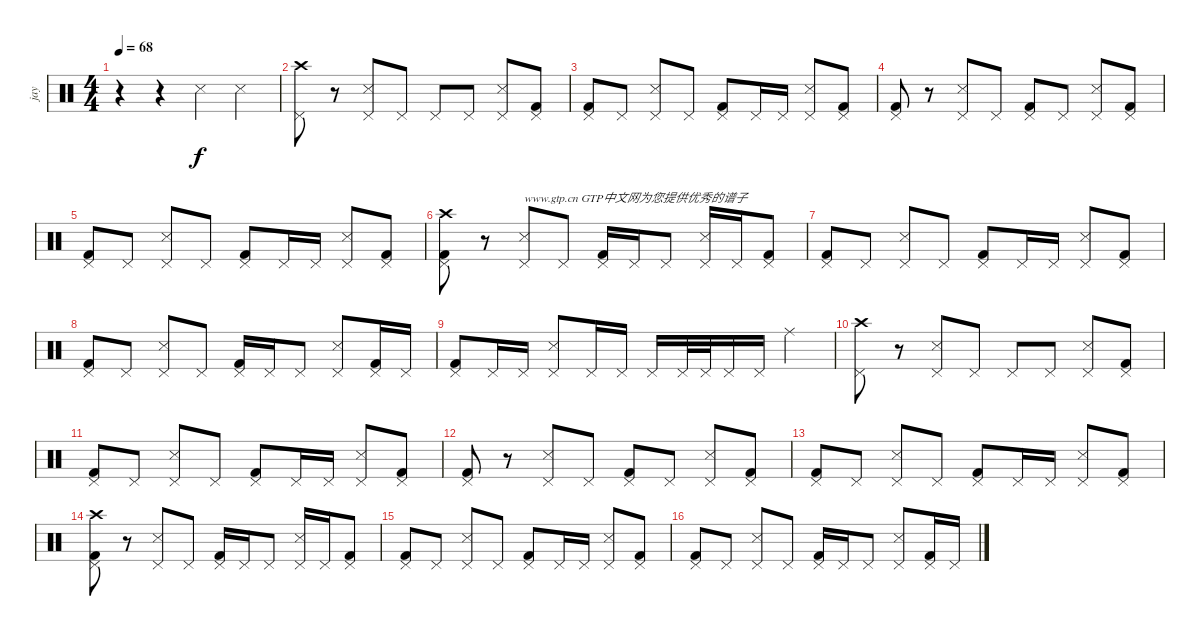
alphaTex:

\track ("jay" "jay") {instrument percussion}
\staff {score}
\articulation defaults
\ts (4 4)
\tempo 68
\clef neutral
\ks c
r.4{dy f} r.4 "Snare (side stick) 3".4 "Snare (side stick) 3".4 |
("Crash high (hit)" "Pedal Hi-Hat (hit)").8 r.8 ("Snare (side stick) 3" "Pedal Hi-Hat (hit)").8 "Pedal Hi-Hat (hit)".8 "Pedal Hi-Hat (hit)".8 "Pedal Hi-Hat (hit)".8 ("Snare (side stick) 3" "Pedal Hi-Hat (hit)").8 ("Kick (hit) 2" "Pedal Hi-Hat (hit)").8 |
("Kick (hit) 2" "Pedal Hi-Hat (hit)").8 "Pedal Hi-Hat (hit)".8 ("Snare (side stick) 3" "Pedal Hi-Hat (hit)").8 "Pedal Hi-Hat (hit)".8 ("Kick (hit) 2" "Pedal Hi-Hat (hit)").8 "Pedal Hi-Hat (hit)".16 "Pedal Hi-Hat (hit)".16 ("Snare (side stick) 3" "Pedal Hi-Hat (hit)").8 ("Kick (hit) 2" "Pedal Hi-Hat (hit)").8 |
("Kick (hit) 2" "Pedal Hi-Hat (hit)").8 r.8 ("Snare (side stick) 3" "Pedal Hi-Hat (hit)").8 "Pedal Hi-Hat (hit)".8 ("Kick (hit) 2" "Pedal Hi-Hat (hit)").8 "Pedal Hi-Hat (hit)".8 ("Snare (side stick) 3" "Pedal Hi-Hat (hit)").8 ("Kick (hit) 2" "Pedal Hi-Hat (hit)").8 |
("Kick (hit) 2" "Pedal Hi-Hat (hit)").8 "Pedal Hi-Hat (hit)".8 ("Snare (side stick) 3" "Pedal Hi-Hat (hit)").8 "Pedal Hi-Hat (hit)".8 ("Kick (hit) 2" "Pedal Hi-Hat (hit)").8 "Pedal Hi-Hat (hit)".16 "Pedal Hi-Hat (hit)".16 ("Snare (side stick) 3" "Pedal Hi-Hat (hit)").8 ("Kick (hit) 2" "Pedal Hi-Hat (hit)").8 |
("Crash high (hit)" "Kick (hit) 2" "Pedal Hi-Hat (hit)").8 r.8 ("Snare (side stick) 3" "Pedal Hi-Hat (hit)").8{txt "www.gtp.cn GTP中文网为您提供优秀的谱子"} "Pedal Hi-Hat (hit)".8 ("Kick (hit) 2" "Pedal Hi-Hat (hit)").16 "Pedal Hi-Hat (hit)".16 "Pedal Hi-Hat (hit)".8 ("Snare (side stick) 3" "Pedal Hi-Hat (hit)").16 "Pedal Hi-Hat (hit)".16 ("Kick (hit) 2" "Pedal Hi-Hat (hit)").8 |
("Kick (hit) 2" "Pedal Hi-Hat (hit)").8 "Pedal Hi-Hat (hit)".8 ("Snare (side stick) 3" "Pedal Hi-Hat (hit)").8 "Pedal Hi-Hat (hit)".8 ("Kick (hit) 2" "Pedal Hi-Hat (hit)").8 "Pedal Hi-Hat (hit)".16 "Pedal Hi-Hat (hit)".16 ("Snare (side stick) 3" "Pedal Hi-Hat (hit)").8 ("Kick (hit) 2" "Pedal Hi-Hat (hit)").8 |
("Kick (hit) 2" "Pedal Hi-Hat (hit)").8 "Pedal Hi-Hat (hit)".8 ("Snare (side stick) 3" "Pedal Hi-Hat (hit)").8 "Pedal Hi-Hat (hit)".8 ("Kick (hit) 2" "Pedal Hi-Hat (hit)").16 "Pedal Hi-Hat (hit)".16 "Pedal Hi-Hat (hit)".8 ("Snare (side stick) 3" "Pedal Hi-Hat (hit)").8 ("Kick (hit) 2" "Pedal Hi-Hat (hit)").16 "Pedal Hi-Hat (hit)".16 |
("Kick (hit) 2" "Pedal Hi-Hat (hit)").8 "Pedal Hi-Hat (hit)".16 "Pedal Hi-Hat (hit)".16 ("Snare (side stick) 3" "Pedal Hi-Hat (hit)").8 "Pedal Hi-Hat (hit)".16 "Pedal Hi-Hat (hit)".16 "Pedal Hi-Hat (hit)".16 "Pedal Hi-Hat (hit)".32 "Pedal Hi-Hat (hit)".32 "Pedal Hi-Hat (hit)".16 "Pedal Hi-Hat (hit)".16 "Ride (middle)".4 |
("Crash high (hit)" "Pedal Hi-Hat (hit)").8 r.8 ("Snare (side stick) 3" "Pedal Hi-Hat (hit)").8 "Pedal Hi-Hat (hit)".8 "Pedal Hi-Hat (hit)".8 "Pedal Hi-Hat (hit)".8 ("Snare (side stick) 3" "Pedal Hi-Hat (hit)").8 ("Kick (hit) 2" "Pedal Hi-Hat (hit)").8 |
("Kick (hit) 2" "Pedal Hi-Hat (hit)").8 "Pedal Hi-Hat (hit)".8 ("Snare (side stick) 3" "Pedal Hi-Hat (hit)").8 "Pedal Hi-Hat (hit)".8 ("Kick (hit) 2" "Pedal Hi-Hat (hit)").8 "Pedal Hi-Hat (hit)".16 "Pedal Hi-Hat (hit)".16 ("Snare (side stick) 3" "Pedal Hi-Hat (hit)").8 ("Kick (hit) 2" "Pedal Hi-Hat (hit)").8 |
("Kick (hit) 2" "Pedal Hi-Hat (hit)").8 r.8 ("Snare (side stick) 3" "Pedal Hi-Hat (hit)").8 "Pedal Hi-Hat (hit)".8 ("Kick (hit) 2" "Pedal Hi-Hat (hit)").8 "Pedal Hi-Hat (hit)".8 ("Snare (side stick) 3" "Pedal Hi-Hat (hit)").8 ("Kick (hit) 2" "Pedal Hi-Hat (hit)").8 |
("Kick (hit) 2" "Pedal Hi-Hat (hit)").8 "Pedal Hi-Hat (hit)".8 ("Snare (side stick) 3" "Pedal Hi-Hat (hit)").8 "Pedal Hi-Hat (hit)".8 ("Kick (hit) 2" "Pedal Hi-Hat (hit)").8 "Pedal Hi-Hat (hit)".16 "Pedal Hi-Hat (hit)".16 ("Snare (side stick) 3" "Pedal Hi-Hat (hit)").8 ("Kick (hit) 2" "Pedal Hi-Hat (hit)").8 |
("Crash high (hit)" "Kick (hit) 2" "Pedal Hi-Hat (hit)").8 r.8 ("Snare (side stick) 3" "Pedal Hi-Hat (hit)").8 "Pedal Hi-Hat (hit)".8 ("Kick (hit) 2" "Pedal Hi-Hat (hit)").16 "Pedal Hi-Hat (hit)".16 "Pedal Hi-Hat (hit)".8 ("Snare (side stick) 3" "Pedal Hi-Hat (hit)").16 "Pedal Hi-Hat (hit)".16 ("Kick (hit) 2" "Pedal Hi-Hat (hit)").8 |
("Kick (hit) 2" "Pedal Hi-Hat (hit)").8 "Pedal Hi-Hat (hit)".8 ("Snare (side stick) 3" "Pedal Hi-Hat (hit)").8 "Pedal Hi-Hat (hit)".8 ("Kick (hit) 2" "Pedal Hi-Hat (hit)").8 "Pedal Hi-Hat (hit)".16 "Pedal Hi-Hat (hit)".16 ("Snare (side stick) 3" "Pedal Hi-Hat (hit)").8 ("Kick (hit) 2" "Pedal Hi-Hat (hit)").8 |
("Kick (hit) 2" "Pedal Hi-Hat (hit)").8 "Pedal Hi-Hat (hit)".8 ("Snare (side stick) 3" "Pedal Hi-Hat (hit)").8 "Pedal Hi-Hat (hit)".8 ("Kick (hit) 2" "Pedal Hi-Hat (hit)").16 "Pedal Hi-Hat (hit)".16 "Pedal Hi-Hat (hit)".8 ("Snare (side stick) 3" "Pedal Hi-Hat (hit)").8 ("Kick (hit) 2" "Pedal Hi-Hat (hit)").16 "Pedal Hi-Hat (hit)".16
